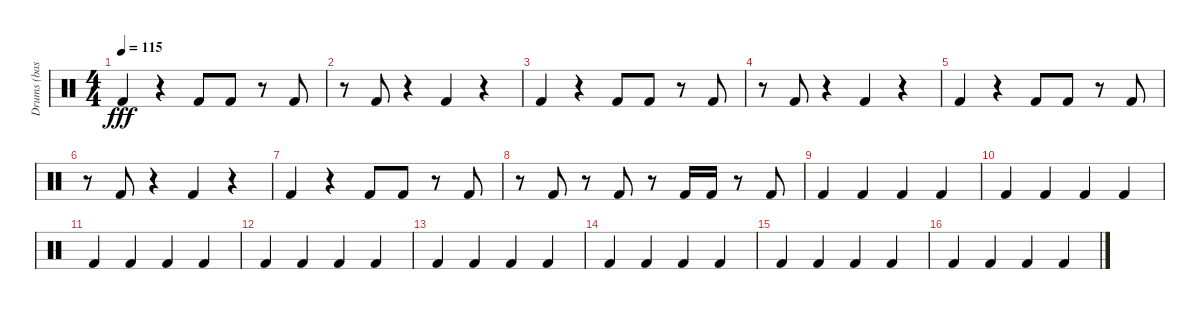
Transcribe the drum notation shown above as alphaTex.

\track ("Drums (bass drum)" "Drums (bas") {instrument percussion}
\staff {score}
\articulation defaults
\ts (4 4)
\tempo 115
\clef neutral
\ks c "Kick (hit) 2".4{dy fff}
r.4 "Kick (hit) 2".8 "Kick (hit) 2".8 r.8 "Kick (hit) 2".8 |
r.8 "Kick (hit) 2".8 r.4 "Kick (hit) 2".4 r.4 |
"Kick (hit) 2".4 r.4 "Kick (hit) 2".8 "Kick (hit) 2".8 r.8 "Kick (hit) 2".8 |
r.8 "Kick (hit) 2".8 r.4 "Kick (hit) 2".4 r.4 |
"Kick (hit) 2".4 r.4 "Kick (hit) 2".8 "Kick (hit) 2".8 r.8 "Kick (hit) 2".8 |
r.8 "Kick (hit) 2".8 r.4 "Kick (hit) 2".4 r.4 |
"Kick (hit) 2".4 r.4 "Kick (hit) 2".8 "Kick (hit) 2".8 r.8 "Kick (hit) 2".8 |
r.8 "Kick (hit) 2".8 r.8 "Kick (hit) 2".8 r.8 "Kick (hit) 2".16 "Kick (hit) 2".16 r.8 "Kick (hit) 2".8 |
"Kick (hit) 2".4 "Kick (hit) 2".4 "Kick (hit) 2".4 "Kick (hit) 2".4 |
"Kick (hit) 2".4 "Kick (hit) 2".4 "Kick (hit) 2".4 "Kick (hit) 2".4 |
"Kick (hit) 2".4 "Kick (hit) 2".4 "Kick (hit) 2".4 "Kick (hit) 2".4 |
"Kick (hit) 2".4 "Kick (hit) 2".4 "Kick (hit) 2".4 "Kick (hit) 2".4 |
"Kick (hit) 2".4 "Kick (hit) 2".4 "Kick (hit) 2".4 "Kick (hit) 2".4 |
"Kick (hit) 2".4 "Kick (hit) 2".4 "Kick (hit) 2".4 "Kick (hit) 2".4 |
"Kick (hit) 2".4 "Kick (hit) 2".4 "Kick (hit) 2".4 "Kick (hit) 2".4 |
"Kick (hit) 2".4 "Kick (hit) 2".4 "Kick (hit) 2".4 "Kick (hit) 2".4
